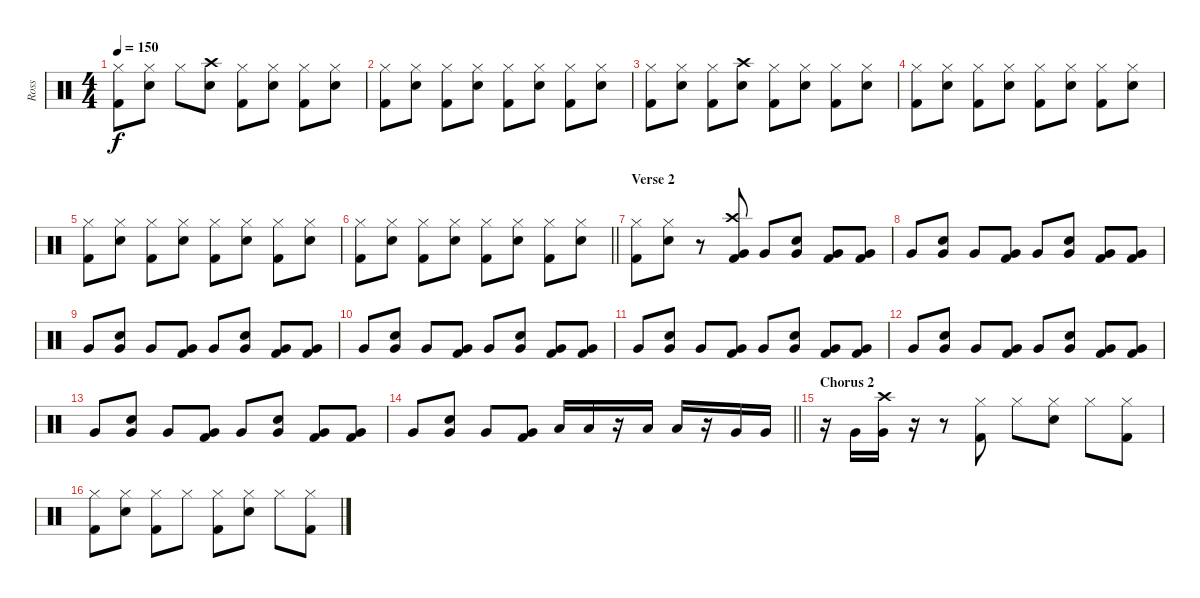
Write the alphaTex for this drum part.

\track ("Ross" "Ross") {instrument percussion}
\staff {score}
\articulation defaults
\ts (4 4)
\tempo 150
\clef neutral
\ks c
("Hi-Hat (closed)" "Kick (hit) 2").8{dy f} ("Hi-Hat (closed)" "Snare (hit) 2").8 "Hi-Hat (closed)".8 ("Crash high (hit)" "Snare (hit) 2").8 ("Hi-Hat (closed)" "Kick (hit) 2").8 ("Hi-Hat (closed)" "Snare (hit) 2").8 ("Hi-Hat (closed)" "Kick (hit) 2").8 ("Hi-Hat (closed)" "Snare (hit) 2").8 |
("Hi-Hat (closed)" "Kick (hit) 2").8 ("Hi-Hat (closed)" "Snare (hit) 2").8 ("Hi-Hat (closed)" "Kick (hit) 2").8 ("Hi-Hat (closed)" "Snare (hit) 2").8 ("Hi-Hat (closed)" "Kick (hit) 2").8 ("Hi-Hat (closed)" "Snare (hit) 2").8 ("Hi-Hat (closed)" "Kick (hit) 2").8 ("Hi-Hat (closed)" "Snare (hit) 2").8 |
("Hi-Hat (closed)" "Kick (hit) 2").8 ("Hi-Hat (closed)" "Snare (hit) 2").8 ("Hi-Hat (closed)" "Kick (hit) 2").8 ("Crash high (hit)" "Snare (hit) 2").8 ("Hi-Hat (closed)" "Kick (hit) 2").8 ("Hi-Hat (closed)" "Snare (hit) 2").8 ("Hi-Hat (closed)" "Kick (hit) 2").8 ("Hi-Hat (closed)" "Snare (hit) 2").8 |
("Hi-Hat (closed)" "Kick (hit) 2").8 ("Hi-Hat (closed)" "Snare (hit) 2").8 ("Hi-Hat (closed)" "Kick (hit) 2").8 ("Hi-Hat (closed)" "Snare (hit) 2").8 ("Hi-Hat (closed)" "Kick (hit) 2").8 ("Hi-Hat (closed)" "Snare (hit) 2").8 ("Hi-Hat (closed)" "Kick (hit) 2").8 ("Hi-Hat (closed)" "Snare (hit) 2").8 |
("Hi-Hat (closed)" "Kick (hit) 2").8 ("Hi-Hat (closed)" "Snare (hit) 2").8 ("Hi-Hat (closed)" "Kick (hit) 2").8 ("Hi-Hat (closed)" "Snare (hit) 2").8 ("Hi-Hat (closed)" "Kick (hit) 2").8 ("Hi-Hat (closed)" "Snare (hit) 2").8 ("Hi-Hat (closed)" "Kick (hit) 2").8 ("Hi-Hat (closed)" "Snare (hit) 2").8 |
\barLineRight lightlight
("Hi-Hat (closed)" "Kick (hit) 2").8 ("Hi-Hat (closed)" "Snare (hit) 2").8 ("Hi-Hat (closed)" "Kick (hit) 2").8 ("Hi-Hat (closed)" "Snare (hit) 2").8 ("Hi-Hat (closed)" "Kick (hit) 2").8 ("Hi-Hat (closed)" "Snare (hit) 2").8 ("Hi-Hat (closed)" "Kick (hit) 2").8 ("Hi-Hat (closed)" "Snare (hit) 2").8 |
\section ("" "Verse 2")
("Hi-Hat (closed)" "Kick (hit) 2").8 ("Hi-Hat (closed)" "Snare (hit) 2").8 r.8 ("Crash high (hit)" "Very Low Tom (hit)" "Kick (hit) 2").8 "Very Low Tom (hit)".8 ("Very Low Tom (hit)" "Snare (hit) 2").8 ("Very Low Tom (hit)" "Kick (hit) 2").8 ("Very Low Tom (hit)" "Kick (hit) 2").8 |
"Very Low Tom (hit)".8 ("Very Low Tom (hit)" "Snare (hit) 2").8 "Very Low Tom (hit)".8 ("Very Low Tom (hit)" "Kick (hit) 2").8 "Very Low Tom (hit)".8 ("Very Low Tom (hit)" "Snare (hit) 2").8 ("Very Low Tom (hit)" "Kick (hit) 2").8 ("Very Low Tom (hit)" "Kick (hit) 2").8 |
"Very Low Tom (hit)".8 ("Very Low Tom (hit)" "Snare (hit) 2").8 "Very Low Tom (hit)".8 ("Very Low Tom (hit)" "Kick (hit) 2").8 "Very Low Tom (hit)".8 ("Very Low Tom (hit)" "Snare (hit) 2").8 ("Very Low Tom (hit)" "Kick (hit) 2").8 ("Very Low Tom (hit)" "Kick (hit) 2").8 |
"Very Low Tom (hit)".8 ("Very Low Tom (hit)" "Snare (hit) 2").8 "Very Low Tom (hit)".8 ("Very Low Tom (hit)" "Kick (hit) 2").8 "Very Low Tom (hit)".8 ("Very Low Tom (hit)" "Snare (hit) 2").8 ("Very Low Tom (hit)" "Kick (hit) 2").8 ("Very Low Tom (hit)" "Kick (hit) 2").8 |
"Very Low Tom (hit)".8 ("Very Low Tom (hit)" "Snare (hit) 2").8 "Very Low Tom (hit)".8 ("Very Low Tom (hit)" "Kick (hit) 2").8 "Very Low Tom (hit)".8 ("Very Low Tom (hit)" "Snare (hit) 2").8 ("Very Low Tom (hit)" "Kick (hit) 2").8 ("Very Low Tom (hit)" "Kick (hit) 2").8 |
"Very Low Tom (hit)".8 ("Very Low Tom (hit)" "Snare (hit) 2").8 "Very Low Tom (hit)".8 ("Very Low Tom (hit)" "Kick (hit) 2").8 "Very Low Tom (hit)".8 ("Very Low Tom (hit)" "Snare (hit) 2").8 ("Very Low Tom (hit)" "Kick (hit) 2").8 ("Very Low Tom (hit)" "Kick (hit) 2").8 |
"Very Low Tom (hit)".8 ("Very Low Tom (hit)" "Snare (hit) 2").8 "Very Low Tom (hit)".8 ("Very Low Tom (hit)" "Kick (hit) 2").8 "Very Low Tom (hit)".8 ("Very Low Tom (hit)" "Snare (hit) 2").8 ("Very Low Tom (hit)" "Kick (hit) 2").8 ("Very Low Tom (hit)" "Kick (hit) 2").8 |
\barLineRight lightlight "Very Low Tom (hit)".8
("Very Low Tom (hit)" "Snare (hit) 2").8 "Very Low Tom (hit)".8 ("Very Low Tom (hit)" "Kick (hit) 2").8 "Low Tom (hit)".16 "Low Tom (hit)".16 r.16 "Low Tom (hit)".16 "Low Tom (hit)".16 r.16 "Very Low Tom (hit)".16 "Very Low Tom (hit)".16 |
\section ("" "Chorus 2")
r.16 "Very Low Tom (hit)".16 ("Crash high (hit)" "Very Low Tom (hit)").16 r.16 r.8 ("Hi-Hat (closed)" "Kick (hit) 2").8 "Hi-Hat (closed)".8 ("Hi-Hat (closed)" "Snare (hit) 2").8 "Hi-Hat (closed)".8 ("Hi-Hat (closed)" "Kick (hit) 2").8 |
("Hi-Hat (closed)" "Kick (hit) 2").8 ("Hi-Hat (closed)" "Snare (hit) 2").8 ("Hi-Hat (closed)" "Kick (hit) 2").8 "Hi-Hat (closed)".8 ("Hi-Hat (closed)" "Kick (hit) 2").8 ("Hi-Hat (closed)" "Snare (hit) 2").8 "Hi-Hat (closed)".8 ("Hi-Hat (closed)" "Kick (hit) 2").8
